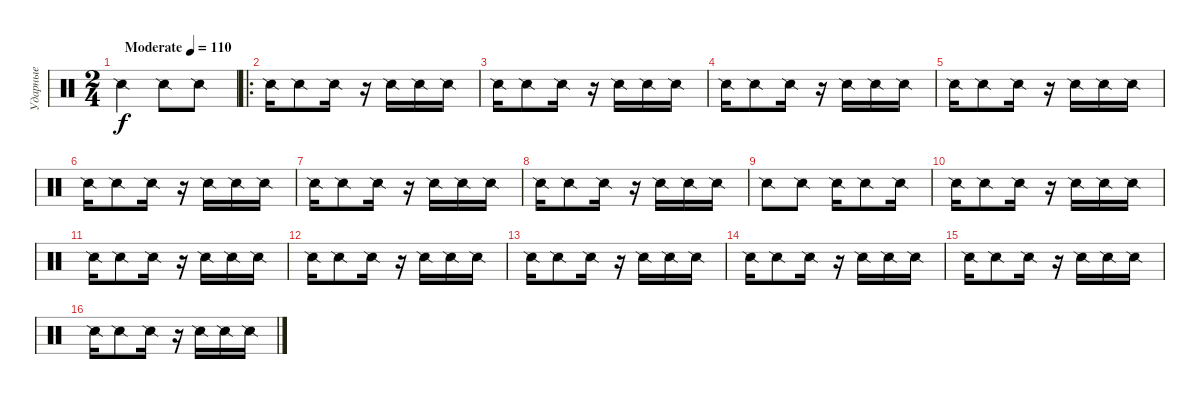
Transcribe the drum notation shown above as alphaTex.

\track ("Ударные" "Ударные") {instrument percussion}
\staff {score}
\articulation defaults
\ts (2 4)
\tempo (110 "Moderate")
\clef neutral
\ks c "Snare (side stick) 2".4{dy f} "Snare (side stick) 2".8 "Snare (side stick) 2".8
|
\ro "Snare (side stick) 2".16 "Snare (side stick) 2".8 "Snare (side stick) 2".16
r.16 "Snare (side stick) 2".16 "Snare (side stick) 2".16 "Snare (side stick) 2".16 |
"Snare (side stick) 2".16 "Snare (side stick) 2".8 "Snare (side stick) 2".16 r.16 "Snare (side stick) 2".16 "Snare (side stick) 2".16 "Snare (side stick) 2".16 |
"Snare (side stick) 2".16 "Snare (side stick) 2".8 "Snare (side stick) 2".16 r.16 "Snare (side stick) 2".16 "Snare (side stick) 2".16 "Snare (side stick) 2".16 |
"Snare (side stick) 2".16 "Snare (side stick) 2".8 "Snare (side stick) 2".16 r.16 "Snare (side stick) 2".16 "Snare (side stick) 2".16 "Snare (side stick) 2".16 |
"Snare (side stick) 2".16 "Snare (side stick) 2".8 "Snare (side stick) 2".16 r.16 "Snare (side stick) 2".16 "Snare (side stick) 2".16 "Snare (side stick) 2".16 |
"Snare (side stick) 2".16 "Snare (side stick) 2".8 "Snare (side stick) 2".16 r.16 "Snare (side stick) 2".16 "Snare (side stick) 2".16 "Snare (side stick) 2".16 |
"Snare (side stick) 2".16 "Snare (side stick) 2".8 "Snare (side stick) 2".16 r.16 "Snare (side stick) 2".16 "Snare (side stick) 2".16 "Snare (side stick) 2".16 |
"Snare (side stick) 2".8 "Snare (side stick) 2".8 "Snare (side stick) 2".16 "Snare (side stick) 2".8 "Snare (side stick) 2".16 |
"Snare (side stick) 2".16 "Snare (side stick) 2".8 "Snare (side stick) 2".16 r.16 "Snare (side stick) 2".16 "Snare (side stick) 2".16 "Snare (side stick) 2".16 |
"Snare (side stick) 2".16 "Snare (side stick) 2".8 "Snare (side stick) 2".16 r.16 "Snare (side stick) 2".16 "Snare (side stick) 2".16 "Snare (side stick) 2".16 |
"Snare (side stick) 2".16 "Snare (side stick) 2".8 "Snare (side stick) 2".16 r.16 "Snare (side stick) 2".16 "Snare (side stick) 2".16 "Snare (side stick) 2".16 |
"Snare (side stick) 2".16 "Snare (side stick) 2".8 "Snare (side stick) 2".16 r.16 "Snare (side stick) 2".16 "Snare (side stick) 2".16 "Snare (side stick) 2".16 |
"Snare (side stick) 2".16 "Snare (side stick) 2".8 "Snare (side stick) 2".16 r.16 "Snare (side stick) 2".16 "Snare (side stick) 2".16 "Snare (side stick) 2".16 |
"Snare (side stick) 2".16 "Snare (side stick) 2".8 "Snare (side stick) 2".16 r.16 "Snare (side stick) 2".16 "Snare (side stick) 2".16 "Snare (side stick) 2".16 |
"Snare (side stick) 2".16 "Snare (side stick) 2".8 "Snare (side stick) 2".16 r.16 "Snare (side stick) 2".16 "Snare (side stick) 2".16 "Snare (side stick) 2".16
